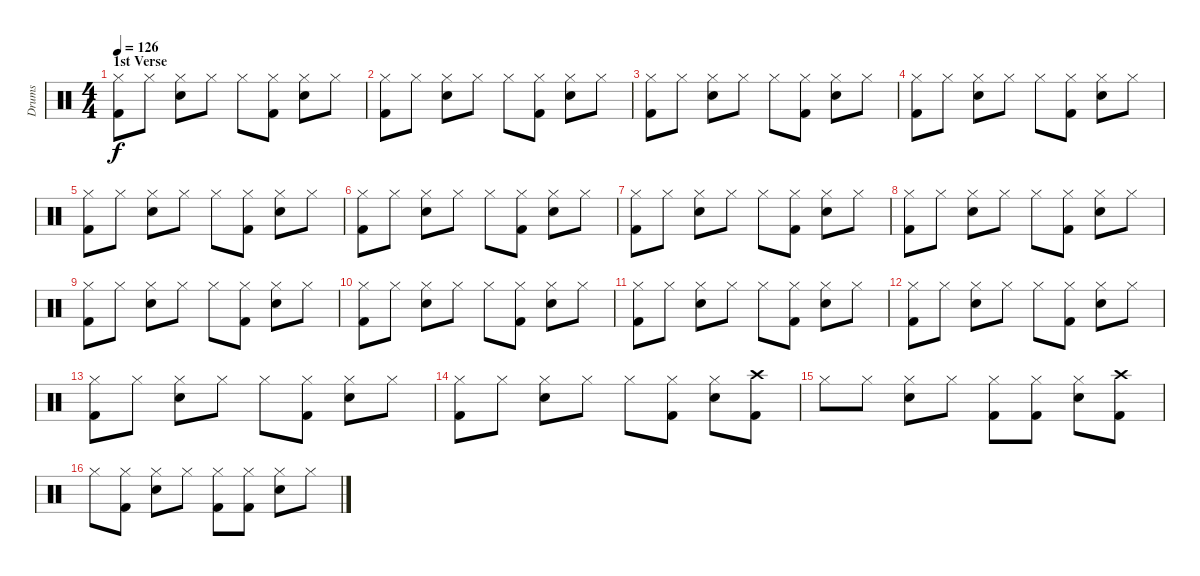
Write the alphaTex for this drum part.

\track ("Drums" "Drums") {instrument percussion}
\staff {score}
\articulation defaults
\ts (4 4)
\section ("" "1st Verse")
\tempo 126
\clef neutral
\ks c
("Hi-Hat (closed)" "Kick (hit) 2").8{dy f} "Hi-Hat (closed)".8 ("Hi-Hat (closed)" "Snare (hit) 2").8 "Hi-Hat (closed)".8 "Hi-Hat (closed)".8 ("Hi-Hat (closed)" "Kick (hit) 2").8 ("Hi-Hat (closed)" "Snare (hit) 2").8 "Hi-Hat (closed)".8 |
("Hi-Hat (closed)" "Kick (hit) 2").8 "Hi-Hat (closed)".8 ("Hi-Hat (closed)" "Snare (hit) 2").8 "Hi-Hat (closed)".8 "Hi-Hat (closed)".8 ("Hi-Hat (closed)" "Kick (hit) 2").8 ("Hi-Hat (closed)" "Snare (hit) 2").8 "Hi-Hat (closed)".8 |
("Hi-Hat (closed)" "Kick (hit) 2").8 "Hi-Hat (closed)".8 ("Hi-Hat (closed)" "Snare (hit) 2").8 "Hi-Hat (closed)".8 "Hi-Hat (closed)".8 ("Hi-Hat (closed)" "Kick (hit) 2").8 ("Hi-Hat (closed)" "Snare (hit) 2").8 "Hi-Hat (closed)".8 |
("Hi-Hat (closed)" "Kick (hit) 2").8 "Hi-Hat (closed)".8 ("Hi-Hat (closed)" "Snare (hit) 2").8 "Hi-Hat (closed)".8 "Hi-Hat (closed)".8 ("Hi-Hat (closed)" "Kick (hit) 2").8 ("Hi-Hat (closed)" "Snare (hit) 2").8 "Hi-Hat (closed)".8 |
("Hi-Hat (closed)" "Kick (hit) 2").8 "Hi-Hat (closed)".8 ("Hi-Hat (closed)" "Snare (hit) 2").8 "Hi-Hat (closed)".8 "Hi-Hat (closed)".8 ("Hi-Hat (closed)" "Kick (hit) 2").8 ("Hi-Hat (closed)" "Snare (hit) 2").8 "Hi-Hat (closed)".8 |
("Hi-Hat (closed)" "Kick (hit) 2").8 "Hi-Hat (closed)".8 ("Hi-Hat (closed)" "Snare (hit) 2").8 "Hi-Hat (closed)".8 "Hi-Hat (closed)".8 ("Hi-Hat (closed)" "Kick (hit) 2").8 ("Hi-Hat (closed)" "Snare (hit) 2").8 "Hi-Hat (closed)".8 |
("Hi-Hat (closed)" "Kick (hit) 2").8 "Hi-Hat (closed)".8 ("Hi-Hat (closed)" "Snare (hit) 2").8 "Hi-Hat (closed)".8 "Hi-Hat (closed)".8 ("Hi-Hat (closed)" "Kick (hit) 2").8 ("Hi-Hat (closed)" "Snare (hit) 2").8 "Hi-Hat (closed)".8 |
("Hi-Hat (closed)" "Kick (hit) 2").8 "Hi-Hat (closed)".8 ("Hi-Hat (closed)" "Snare (hit) 2").8 "Hi-Hat (closed)".8 "Hi-Hat (closed)".8 ("Hi-Hat (closed)" "Kick (hit) 2").8 ("Hi-Hat (closed)" "Snare (hit) 2").8 "Hi-Hat (closed)".8 |
("Hi-Hat (closed)" "Kick (hit) 2").8 "Hi-Hat (closed)".8 ("Hi-Hat (closed)" "Snare (hit) 2").8 "Hi-Hat (closed)".8 "Hi-Hat (closed)".8 ("Hi-Hat (closed)" "Kick (hit) 2").8 ("Hi-Hat (closed)" "Snare (hit) 2").8 "Hi-Hat (closed)".8 |
("Hi-Hat (closed)" "Kick (hit) 2").8 "Hi-Hat (closed)".8 ("Hi-Hat (closed)" "Snare (hit) 2").8 "Hi-Hat (closed)".8 "Hi-Hat (closed)".8 ("Hi-Hat (closed)" "Kick (hit) 2").8 ("Hi-Hat (closed)" "Snare (hit) 2").8 "Hi-Hat (closed)".8 |
("Hi-Hat (closed)" "Kick (hit) 2").8 "Hi-Hat (closed)".8 ("Hi-Hat (closed)" "Snare (hit) 2").8 "Hi-Hat (closed)".8 "Hi-Hat (closed)".8 ("Hi-Hat (closed)" "Kick (hit) 2").8 ("Hi-Hat (closed)" "Snare (hit) 2").8 "Hi-Hat (closed)".8 |
("Hi-Hat (closed)" "Kick (hit) 2").8 "Hi-Hat (closed)".8 ("Hi-Hat (closed)" "Snare (hit) 2").8 "Hi-Hat (closed)".8 "Hi-Hat (closed)".8 ("Hi-Hat (closed)" "Kick (hit) 2").8 ("Hi-Hat (closed)" "Snare (hit) 2").8 "Hi-Hat (closed)".8 |
("Hi-Hat (closed)" "Kick (hit) 2").8 "Hi-Hat (closed)".8 ("Hi-Hat (closed)" "Snare (hit) 2").8 "Hi-Hat (closed)".8 "Hi-Hat (closed)".8 ("Hi-Hat (closed)" "Kick (hit) 2").8 ("Hi-Hat (closed)" "Snare (hit) 2").8 "Hi-Hat (closed)".8 |
("Hi-Hat (closed)" "Kick (hit) 2").8 "Hi-Hat (closed)".8 ("Hi-Hat (closed)" "Snare (hit) 2").8 "Hi-Hat (closed)".8 "Hi-Hat (closed)".8 ("Hi-Hat (closed)" "Kick (hit) 2").8 ("Hi-Hat (closed)" "Snare (hit) 2").8 ("Crash high (hit)" "Kick (hit) 2").8 |
"Hi-Hat (closed)".8 "Hi-Hat (closed)".8 ("Hi-Hat (closed)" "Snare (hit) 2").8 "Hi-Hat (closed)".8 ("Hi-Hat (closed)" "Kick (hit) 2").8 ("Hi-Hat (closed)" "Kick (hit) 2").8 ("Hi-Hat (closed)" "Snare (hit) 2").8 ("Crash high (hit)" "Kick (hit) 2").8 |
"Hi-Hat (closed)".8 ("Hi-Hat (closed)" "Kick (hit) 2").8 ("Hi-Hat (closed)" "Snare (hit) 2").8 "Hi-Hat (closed)".8 ("Hi-Hat (closed)" "Kick (hit) 2").8 ("Hi-Hat (closed)" "Kick (hit) 2").8 ("Hi-Hat (closed)" "Snare (hit) 2").8 "Hi-Hat (closed)".8
